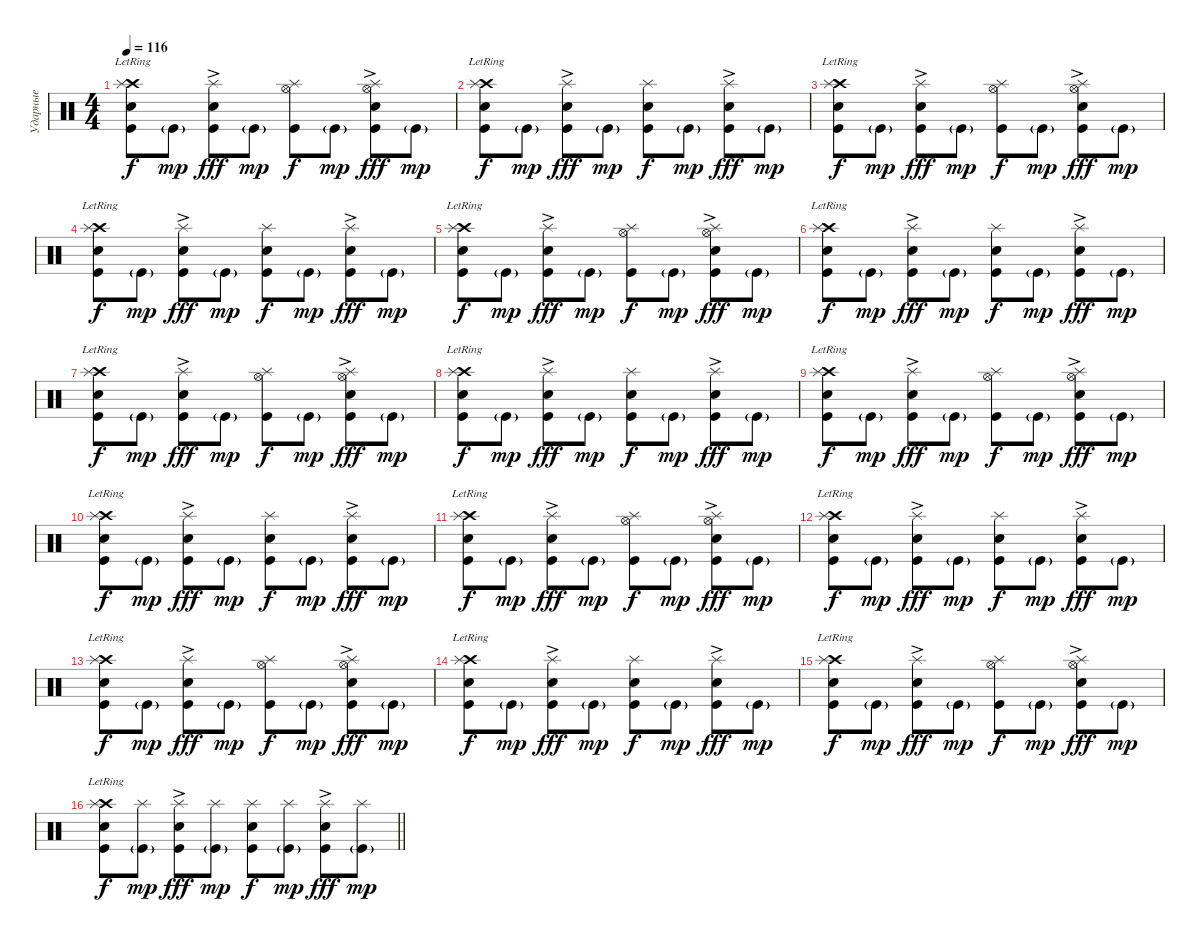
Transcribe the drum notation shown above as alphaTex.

\track ("Ударные" "Ударные") {instrument percussion}
\staff {score}
\articulation defaults
\ts (4 4)
\tempo 116
\clef neutral
\ks c
("Crash high (hit)"{lr} "Splash (hit)" "Snare (hit) 2" "Kick (hit)"{lr}).8{dy f} "Kick (hit)"{g}.8{dy mp} ("Splash (hit)" "Electric Snare (hit)"{ac} "Kick (hit)").8{dy fff} "Kick (hit)"{g}.8{dy mp} ("Splash (hit)" "Hi-Hat (open)" "Kick (hit)").8{dy f} "Kick (hit)"{g}.8{dy mp} ("Splash (hit)" "Hi-Hat (open)" "Electric Snare (hit)"{ac} "Kick (hit)").8{dy fff} "Kick (hit)"{g}.8{dy mp} |
("Crash high (hit)"{lr} "Splash (hit)" "Snare (hit) 2" "Kick (hit)"{lr}).8{dy f} "Kick (hit)"{g}.8{dy mp} ("Splash (hit)" "Electric Snare (hit)"{ac} "Kick (hit)").8{dy fff} "Kick (hit)"{g}.8{dy mp} ("Splash (hit)" "Snare (hit) 2" "Kick (hit)").8{dy f} "Kick (hit)"{g}.8{dy mp} ("Splash (hit)" "Electric Snare (hit)"{ac} "Kick (hit)").8{dy fff} "Kick (hit)"{g}.8{dy mp} |
("Crash high (hit)"{lr} "Splash (hit)" "Snare (hit) 2" "Kick (hit)"{lr}).8{dy f} "Kick (hit)"{g}.8{dy mp} ("Splash (hit)" "Electric Snare (hit)"{ac} "Kick (hit)").8{dy fff} "Kick (hit)"{g}.8{dy mp} ("Splash (hit)" "Hi-Hat (open)" "Kick (hit)").8{dy f} "Kick (hit)"{g}.8{dy mp} ("Splash (hit)" "Hi-Hat (open)" "Electric Snare (hit)"{ac} "Kick (hit)").8{dy fff} "Kick (hit)"{g}.8{dy mp} |
("Crash high (hit)"{lr} "Splash (hit)" "Snare (hit) 2" "Kick (hit)"{lr}).8{dy f} "Kick (hit)"{g}.8{dy mp} ("Splash (hit)" "Electric Snare (hit)"{ac} "Kick (hit)").8{dy fff} "Kick (hit)"{g}.8{dy mp} ("Splash (hit)" "Snare (hit) 2" "Kick (hit)").8{dy f} "Kick (hit)"{g}.8{dy mp} ("Splash (hit)" "Electric Snare (hit)"{ac} "Kick (hit)").8{dy fff} "Kick (hit)"{g}.8{dy mp} |
("Crash high (hit)"{lr} "Splash (hit)" "Snare (hit) 2" "Kick (hit)"{lr}).8{dy f} "Kick (hit)"{g}.8{dy mp} ("Splash (hit)" "Electric Snare (hit)"{ac} "Kick (hit)").8{dy fff} "Kick (hit)"{g}.8{dy mp} ("Splash (hit)" "Hi-Hat (open)" "Kick (hit)").8{dy f} "Kick (hit)"{g}.8{dy mp} ("Splash (hit)" "Hi-Hat (open)" "Electric Snare (hit)"{ac} "Kick (hit)").8{dy fff} "Kick (hit)"{g}.8{dy mp} |
("Crash high (hit)"{lr} "Splash (hit)" "Snare (hit) 2" "Kick (hit)"{lr}).8{dy f} "Kick (hit)"{g}.8{dy mp} ("Splash (hit)" "Electric Snare (hit)"{ac} "Kick (hit)").8{dy fff} "Kick (hit)"{g}.8{dy mp} ("Splash (hit)" "Snare (hit) 2" "Kick (hit)").8{dy f} "Kick (hit)"{g}.8{dy mp} ("Splash (hit)" "Electric Snare (hit)"{ac} "Kick (hit)").8{dy fff} "Kick (hit)"{g}.8{dy mp} |
("Crash high (hit)"{lr} "Splash (hit)" "Snare (hit) 2" "Kick (hit)"{lr}).8{dy f} "Kick (hit)"{g}.8{dy mp} ("Splash (hit)" "Electric Snare (hit)"{ac} "Kick (hit)").8{dy fff} "Kick (hit)"{g}.8{dy mp} ("Splash (hit)" "Hi-Hat (open)" "Kick (hit)").8{dy f} "Kick (hit)"{g}.8{dy mp} ("Splash (hit)" "Hi-Hat (open)" "Electric Snare (hit)"{ac} "Kick (hit)").8{dy fff} "Kick (hit)"{g}.8{dy mp} |
("Crash high (hit)"{lr} "Splash (hit)" "Snare (hit) 2" "Kick (hit)"{lr}).8{dy f} "Kick (hit)"{g}.8{dy mp} ("Splash (hit)" "Electric Snare (hit)"{ac} "Kick (hit)").8{dy fff} "Kick (hit)"{g}.8{dy mp} ("Splash (hit)" "Snare (hit) 2" "Kick (hit)").8{dy f} "Kick (hit)"{g}.8{dy mp} ("Splash (hit)" "Electric Snare (hit)"{ac} "Kick (hit)").8{dy fff} "Kick (hit)"{g}.8{dy mp} |
("Crash high (hit)"{lr} "Splash (hit)" "Snare (hit) 2" "Kick (hit)"{lr}).8{dy f} "Kick (hit)"{g}.8{dy mp} ("Splash (hit)" "Electric Snare (hit)"{ac} "Kick (hit)").8{dy fff} "Kick (hit)"{g}.8{dy mp} ("Splash (hit)" "Hi-Hat (open)" "Kick (hit)").8{dy f} "Kick (hit)"{g}.8{dy mp} ("Splash (hit)" "Hi-Hat (open)" "Electric Snare (hit)"{ac} "Kick (hit)").8{dy fff} "Kick (hit)"{g}.8{dy mp} |
("Crash high (hit)"{lr} "Splash (hit)" "Snare (hit) 2" "Kick (hit)"{lr}).8{dy f} "Kick (hit)"{g}.8{dy mp} ("Splash (hit)" "Electric Snare (hit)"{ac} "Kick (hit)").8{dy fff} "Kick (hit)"{g}.8{dy mp} ("Splash (hit)" "Snare (hit) 2" "Kick (hit)").8{dy f} "Kick (hit)"{g}.8{dy mp} ("Splash (hit)" "Electric Snare (hit)"{ac} "Kick (hit)").8{dy fff} "Kick (hit)"{g}.8{dy mp} |
("Crash high (hit)"{lr} "Splash (hit)" "Snare (hit) 2" "Kick (hit)"{lr}).8{dy f} "Kick (hit)"{g}.8{dy mp} ("Splash (hit)" "Electric Snare (hit)"{ac} "Kick (hit)").8{dy fff} "Kick (hit)"{g}.8{dy mp} ("Splash (hit)" "Hi-Hat (open)" "Kick (hit)").8{dy f} "Kick (hit)"{g}.8{dy mp} ("Splash (hit)" "Hi-Hat (open)" "Electric Snare (hit)"{ac} "Kick (hit)").8{dy fff} "Kick (hit)"{g}.8{dy mp} |
("Crash high (hit)"{lr} "Splash (hit)" "Snare (hit) 2" "Kick (hit)"{lr}).8{dy f} "Kick (hit)"{g}.8{dy mp} ("Splash (hit)" "Electric Snare (hit)"{ac} "Kick (hit)").8{dy fff} "Kick (hit)"{g}.8{dy mp} ("Splash (hit)" "Snare (hit) 2" "Kick (hit)").8{dy f} "Kick (hit)"{g}.8{dy mp} ("Splash (hit)" "Electric Snare (hit)"{ac} "Kick (hit)").8{dy fff} "Kick (hit)"{g}.8{dy mp} |
("Crash high (hit)"{lr} "Splash (hit)" "Snare (hit) 2" "Kick (hit)"{lr}).8{dy f} "Kick (hit)"{g}.8{dy mp} ("Splash (hit)" "Electric Snare (hit)"{ac} "Kick (hit)").8{dy fff} "Kick (hit)"{g}.8{dy mp} ("Splash (hit)" "Hi-Hat (open)" "Kick (hit)").8{dy f} "Kick (hit)"{g}.8{dy mp} ("Splash (hit)" "Hi-Hat (open)" "Electric Snare (hit)"{ac} "Kick (hit)").8{dy fff} "Kick (hit)"{g}.8{dy mp} |
("Crash high (hit)"{lr} "Splash (hit)" "Snare (hit) 2" "Kick (hit)"{lr}).8{dy f} "Kick (hit)"{g}.8{dy mp} ("Splash (hit)" "Electric Snare (hit)"{ac} "Kick (hit)").8{dy fff} "Kick (hit)"{g}.8{dy mp} ("Splash (hit)" "Snare (hit) 2" "Kick (hit)").8{dy f} "Kick (hit)"{g}.8{dy mp} ("Splash (hit)" "Electric Snare (hit)"{ac} "Kick (hit)").8{dy fff} "Kick (hit)"{g}.8{dy mp} |
("Crash high (hit)"{lr} "Splash (hit)" "Snare (hit) 2" "Kick (hit)"{lr}).8{dy f} "Kick (hit)"{g}.8{dy mp} ("Splash (hit)" "Electric Snare (hit)"{ac} "Kick (hit)").8{dy fff} "Kick (hit)"{g}.8{dy mp} ("Splash (hit)" "Hi-Hat (open)" "Kick (hit)").8{dy f} "Kick (hit)"{g}.8{dy mp} ("Splash (hit)" "Hi-Hat (open)" "Electric Snare (hit)"{ac} "Kick (hit)").8{dy fff} "Kick (hit)"{g}.8{dy mp} |
\barLineRight lightlight
("Crash high (hit)"{lr} "Splash (hit)" "Snare (hit) 2" "Kick (hit)"{lr}).8{dy f} ("Splash (hit)" "Kick (hit)"{g}).8{dy mp} ("Splash (hit)" "Electric Snare (hit)"{ac} "Kick (hit)").8{dy fff} ("Splash (hit)" "Kick (hit)"{g}).8{dy mp} ("Splash (hit)" "Snare (hit) 2" "Kick (hit)").8{dy f} ("Splash (hit)" "Kick (hit)"{g}).8{dy mp} ("Splash (hit)" "Electric Snare (hit)"{ac} "Kick (hit)").8{dy fff} ("Splash (hit)" "Kick (hit)"{g}).8{dy mp}
